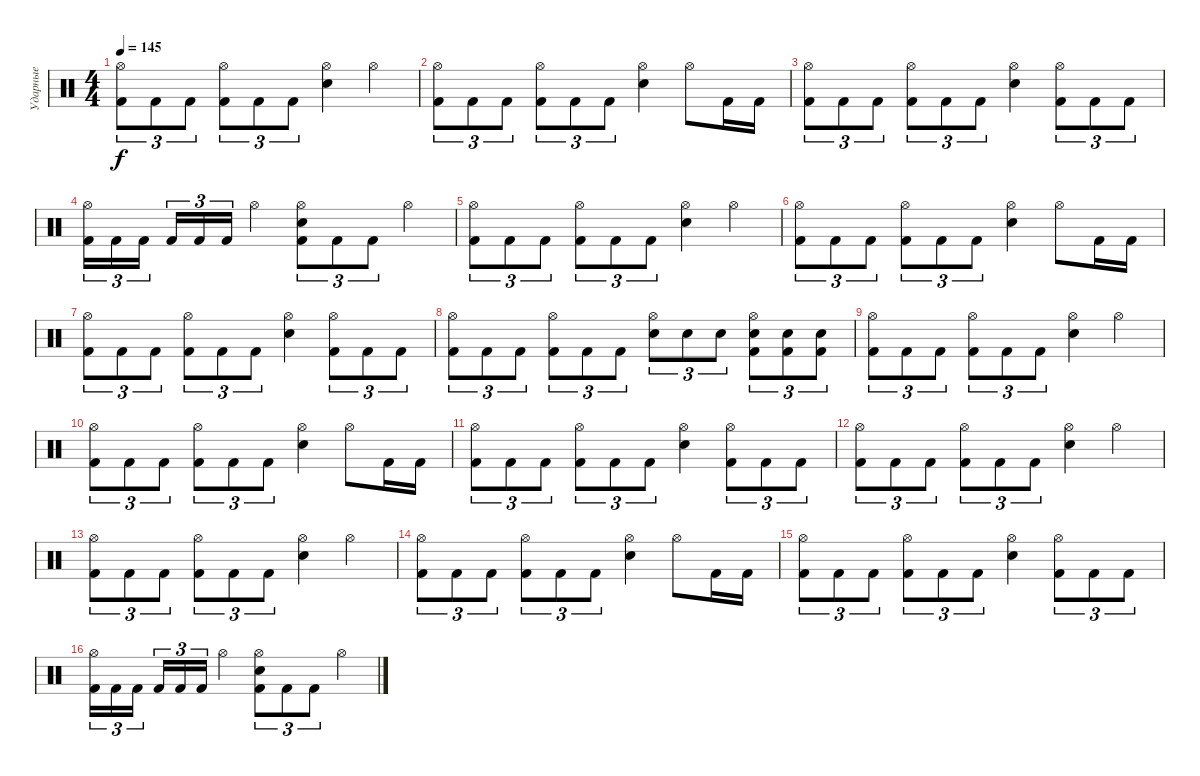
\track ("Ударные" "Ударные") {instrument percussion}
\staff {score}
\articulation defaults
\ts (4 4)
\tempo 145
\clef neutral
\ks c
("Hi-Hat (open)" "Kick (hit) 2").8{tu (3 2) dy f} "Kick (hit) 2".8{tu (3 2)} "Kick (hit) 2".8{tu (3 2)} ("Hi-Hat (open)" "Kick (hit) 2").8{tu (3 2)} "Kick (hit) 2".8{tu (3 2)} "Kick (hit) 2".8{tu (3 2)} ("Hi-Hat (open)" "Snare (hit) 2").4 "Hi-Hat (open)".4 |
("Hi-Hat (open)" "Kick (hit) 2").8{tu (3 2)} "Kick (hit) 2".8{tu (3 2)} "Kick (hit) 2".8{tu (3 2)} ("Hi-Hat (open)" "Kick (hit) 2").8{tu (3 2)} "Kick (hit) 2".8{tu (3 2)} "Kick (hit) 2".8{tu (3 2)} ("Hi-Hat (open)" "Snare (hit) 2").4 "Hi-Hat (open)".8 "Kick (hit) 2".16 "Kick (hit) 2".16 |
("Hi-Hat (open)" "Kick (hit) 2").8{tu (3 2)} "Kick (hit) 2".8{tu (3 2)} "Kick (hit) 2".8{tu (3 2)} ("Hi-Hat (open)" "Kick (hit) 2").8{tu (3 2)} "Kick (hit) 2".8{tu (3 2)} "Kick (hit) 2".8{tu (3 2)} ("Hi-Hat (open)" "Snare (hit) 2").4 ("Hi-Hat (open)" "Kick (hit) 2").8{tu (3 2)} "Kick (hit) 2".8{tu (3 2)} "Kick (hit) 2".8{tu (3 2)} |
("Hi-Hat (open)" "Kick (hit) 2").16{tu (3 2)} "Kick (hit) 2".16{tu (3 2)} "Kick (hit) 2".16{tu (3 2) beam splitsecondary} "Kick (hit) 2".16{tu (3 2)} "Kick (hit) 2".16{tu (3 2)} "Kick (hit) 2".16{tu (3 2)} "Hi-Hat (open)".4 ("Snare (hit) 2" "Hi-Hat (open)" "Kick (hit) 2").8{tu (3 2)} "Kick (hit) 2".8{tu (3 2)} "Kick (hit) 2".8{tu (3 2)} "Hi-Hat (open)".4 |
("Hi-Hat (open)" "Kick (hit) 2").8{tu (3 2)} "Kick (hit) 2".8{tu (3 2)} "Kick (hit) 2".8{tu (3 2)} ("Hi-Hat (open)" "Kick (hit) 2").8{tu (3 2)} "Kick (hit) 2".8{tu (3 2)} "Kick (hit) 2".8{tu (3 2)} ("Hi-Hat (open)" "Snare (hit) 2").4 "Hi-Hat (open)".4 |
("Hi-Hat (open)" "Kick (hit) 2").8{tu (3 2)} "Kick (hit) 2".8{tu (3 2)} "Kick (hit) 2".8{tu (3 2)} ("Hi-Hat (open)" "Kick (hit) 2").8{tu (3 2)} "Kick (hit) 2".8{tu (3 2)} "Kick (hit) 2".8{tu (3 2)} ("Hi-Hat (open)" "Snare (hit) 2").4 "Hi-Hat (open)".8 "Kick (hit) 2".16 "Kick (hit) 2".16 |
("Hi-Hat (open)" "Kick (hit) 2").8{tu (3 2)} "Kick (hit) 2".8{tu (3 2)} "Kick (hit) 2".8{tu (3 2)} ("Hi-Hat (open)" "Kick (hit) 2").8{tu (3 2)} "Kick (hit) 2".8{tu (3 2)} "Kick (hit) 2".8{tu (3 2)} ("Hi-Hat (open)" "Snare (hit) 2").4 ("Hi-Hat (open)" "Kick (hit) 2").8{tu (3 2)} "Kick (hit) 2".8{tu (3 2)} "Kick (hit) 2".8{tu (3 2)} |
("Hi-Hat (open)" "Kick (hit) 2").8{tu (3 2)} "Kick (hit) 2".8{tu (3 2)} "Kick (hit) 2".8{tu (3 2)} ("Hi-Hat (open)" "Kick (hit) 2").8{tu (3 2)} "Kick (hit) 2".8{tu (3 2)} "Kick (hit) 2".8{tu (3 2)} ("Hi-Hat (open)" "Snare (hit) 2").8{tu (3 2)} "Snare (hit) 2".8{tu (3 2)} "Snare (hit) 2".8{tu (3 2)} ("Hi-Hat (open)" "Snare (hit) 2" "Kick (hit) 2").8{tu (3 2)} ("Snare (hit) 2" "Kick (hit) 2").8{tu (3 2)} ("Snare (hit) 2" "Kick (hit) 2").8{tu (3 2)} |
("Hi-Hat (open)" "Kick (hit) 2").8{tu (3 2)} "Kick (hit) 2".8{tu (3 2)} "Kick (hit) 2".8{tu (3 2)} ("Hi-Hat (open)" "Kick (hit) 2").8{tu (3 2)} "Kick (hit) 2".8{tu (3 2)} "Kick (hit) 2".8{tu (3 2)} ("Hi-Hat (open)" "Snare (hit) 2").4 "Hi-Hat (open)".4 |
("Hi-Hat (open)" "Kick (hit) 2").8{tu (3 2)} "Kick (hit) 2".8{tu (3 2)} "Kick (hit) 2".8{tu (3 2)} ("Hi-Hat (open)" "Kick (hit) 2").8{tu (3 2)} "Kick (hit) 2".8{tu (3 2)} "Kick (hit) 2".8{tu (3 2)} ("Hi-Hat (open)" "Snare (hit) 2").4 "Hi-Hat (open)".8 "Kick (hit) 2".16 "Kick (hit) 2".16 |
("Hi-Hat (open)" "Kick (hit) 2").8{tu (3 2)} "Kick (hit) 2".8{tu (3 2)} "Kick (hit) 2".8{tu (3 2)} ("Hi-Hat (open)" "Kick (hit) 2").8{tu (3 2)} "Kick (hit) 2".8{tu (3 2)} "Kick (hit) 2".8{tu (3 2)} ("Hi-Hat (open)" "Snare (hit) 2").4 ("Hi-Hat (open)" "Kick (hit) 2").8{tu (3 2)} "Kick (hit) 2".8{tu (3 2)} "Kick (hit) 2".8{tu (3 2)} |
("Hi-Hat (open)" "Kick (hit) 2").8{tu (3 2)} "Kick (hit) 2".8{tu (3 2)} "Kick (hit) 2".8{tu (3 2)} ("Hi-Hat (open)" "Kick (hit) 2").8{tu (3 2)} "Kick (hit) 2".8{tu (3 2)} "Kick (hit) 2".8{tu (3 2)} ("Hi-Hat (open)" "Snare (hit) 2").4 "Hi-Hat (open)".4 |
("Hi-Hat (open)" "Kick (hit) 2").8{tu (3 2)} "Kick (hit) 2".8{tu (3 2)} "Kick (hit) 2".8{tu (3 2)} ("Hi-Hat (open)" "Kick (hit) 2").8{tu (3 2)} "Kick (hit) 2".8{tu (3 2)} "Kick (hit) 2".8{tu (3 2)} ("Hi-Hat (open)" "Snare (hit) 2").4 "Hi-Hat (open)".4 |
("Hi-Hat (open)" "Kick (hit) 2").8{tu (3 2)} "Kick (hit) 2".8{tu (3 2)} "Kick (hit) 2".8{tu (3 2)} ("Hi-Hat (open)" "Kick (hit) 2").8{tu (3 2)} "Kick (hit) 2".8{tu (3 2)} "Kick (hit) 2".8{tu (3 2)} ("Hi-Hat (open)" "Snare (hit) 2").4 "Hi-Hat (open)".8 "Kick (hit) 2".16 "Kick (hit) 2".16 |
("Hi-Hat (open)" "Kick (hit) 2").8{tu (3 2)} "Kick (hit) 2".8{tu (3 2)} "Kick (hit) 2".8{tu (3 2)} ("Hi-Hat (open)" "Kick (hit) 2").8{tu (3 2)} "Kick (hit) 2".8{tu (3 2)} "Kick (hit) 2".8{tu (3 2)} ("Hi-Hat (open)" "Snare (hit) 2").4 ("Hi-Hat (open)" "Kick (hit) 2").8{tu (3 2)} "Kick (hit) 2".8{tu (3 2)} "Kick (hit) 2".8{tu (3 2)} |
("Hi-Hat (open)" "Kick (hit) 2").16{tu (3 2)} "Kick (hit) 2".16{tu (3 2)} "Kick (hit) 2".16{tu (3 2) beam splitsecondary} "Kick (hit) 2".16{tu (3 2)} "Kick (hit) 2".16{tu (3 2)} "Kick (hit) 2".16{tu (3 2)} "Hi-Hat (open)".4 ("Snare (hit) 2" "Hi-Hat (open)" "Kick (hit) 2").8{tu (3 2)} "Kick (hit) 2".8{tu (3 2)} "Kick (hit) 2".8{tu (3 2)} "Hi-Hat (open)".4
